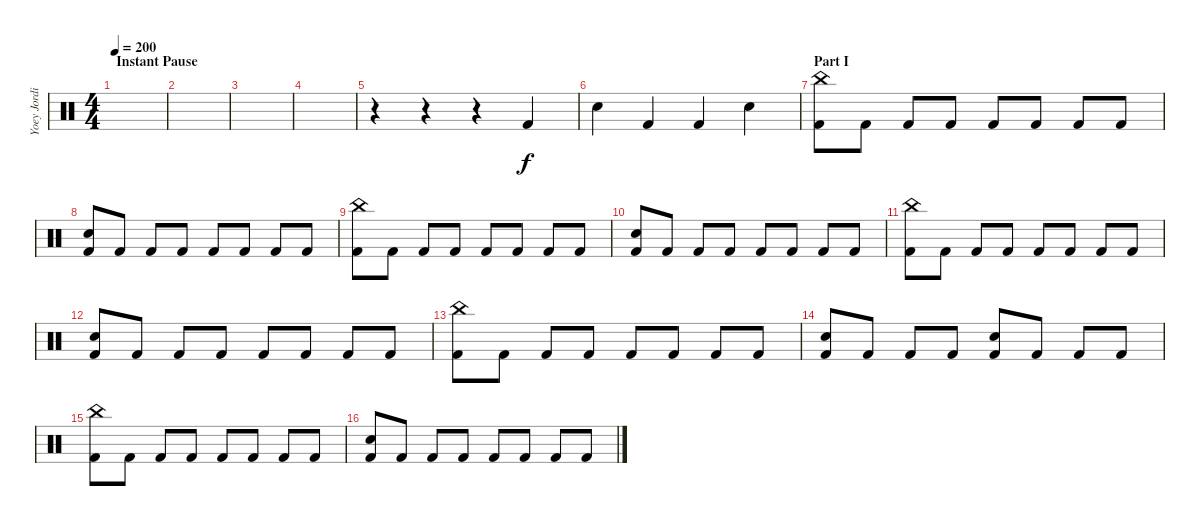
\track ("Yoey Jordison" "Yoey Jordi") {instrument percussion}
\staff {score}
\articulation defaults
\ts (4 4)
\section ("" "Instant Pause")
\tempo 200
\clef neutral
\ks c
|
|
|
|
r.4 r.4 r.4 "Kick (hit) 2".4 |
"Snare (hit) 2".4 "Kick (hit) 2".4 "Kick (hit) 2".4 "Snare (hit) 2".4 |
\section ("" "Part I")
("Kick (hit) 2" "China (hit)").8 "Kick (hit) 2".8 "Kick (hit) 2".8 "Kick (hit) 2".8 "Kick (hit) 2".8 "Kick (hit) 2".8 "Kick (hit) 2".8 "Kick (hit) 2".8 |
("Kick (hit) 2" "Snare (hit) 2").8 "Kick (hit) 2".8 "Kick (hit) 2".8 "Kick (hit) 2".8 "Kick (hit) 2".8 "Kick (hit) 2".8 "Kick (hit) 2".8 "Kick (hit) 2".8 |
("Kick (hit) 2" "China (hit)").8 "Kick (hit) 2".8 "Kick (hit) 2".8 "Kick (hit) 2".8 "Kick (hit) 2".8 "Kick (hit) 2".8 "Kick (hit) 2".8 "Kick (hit) 2".8 |
("Kick (hit) 2" "Snare (hit) 2").8 "Kick (hit) 2".8 "Kick (hit) 2".8 "Kick (hit) 2".8 "Kick (hit) 2".8 "Kick (hit) 2".8 "Kick (hit) 2".8 "Kick (hit) 2".8 |
("Kick (hit) 2" "China (hit)").8 "Kick (hit) 2".8 "Kick (hit) 2".8 "Kick (hit) 2".8 "Kick (hit) 2".8 "Kick (hit) 2".8 "Kick (hit) 2".8 "Kick (hit) 2".8 |
("Kick (hit) 2" "Snare (hit) 2").8 "Kick (hit) 2".8 "Kick (hit) 2".8 "Kick (hit) 2".8 "Kick (hit) 2".8 "Kick (hit) 2".8 "Kick (hit) 2".8 "Kick (hit) 2".8 |
("Kick (hit) 2" "China (hit)").8 "Kick (hit) 2".8 "Kick (hit) 2".8 "Kick (hit) 2".8 "Kick (hit) 2".8 "Kick (hit) 2".8 "Kick (hit) 2".8 "Kick (hit) 2".8 |
("Kick (hit) 2" "Snare (hit) 2").8 "Kick (hit) 2".8 "Kick (hit) 2".8 "Kick (hit) 2".8 ("Kick (hit) 2" "Snare (hit) 2").8 "Kick (hit) 2".8 "Kick (hit) 2".8 "Kick (hit) 2".8 |
("Kick (hit) 2" "China (hit)").8 "Kick (hit) 2".8 "Kick (hit) 2".8 "Kick (hit) 2".8 "Kick (hit) 2".8 "Kick (hit) 2".8 "Kick (hit) 2".8 "Kick (hit) 2".8 |
("Kick (hit) 2" "Snare (hit) 2").8 "Kick (hit) 2".8 "Kick (hit) 2".8 "Kick (hit) 2".8 "Kick (hit) 2".8 "Kick (hit) 2".8 "Kick (hit) 2".8 "Kick (hit) 2".8
